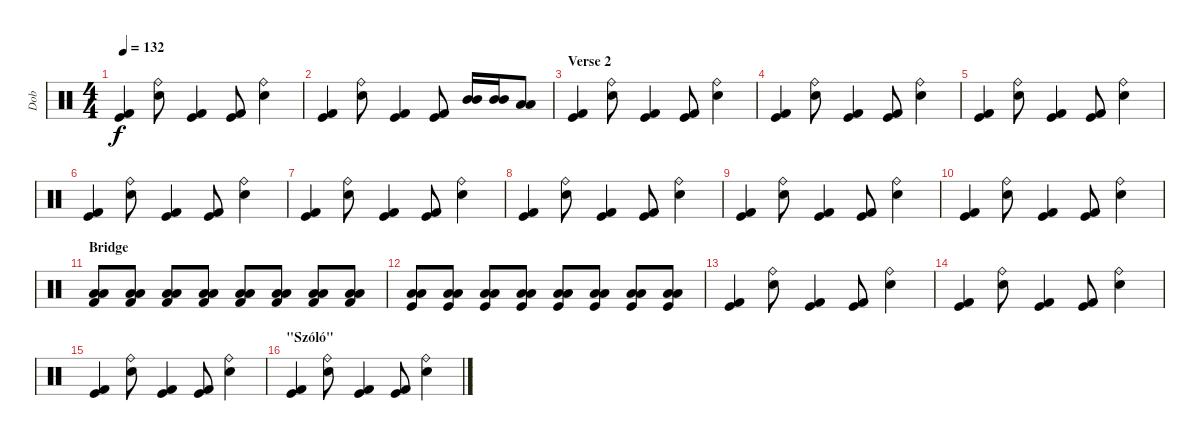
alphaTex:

\track ("Dob" "Dob") {instrument percussion}
\staff {score}
\articulation defaults
\ts (4 4)
\tempo 132
\clef neutral
\ks c
("Kick (hit)" "Kick (hit) 2").4{dy f} ("Snare (hit) 2" "Ride (bell)").8 ("Kick (hit)" "Kick (hit) 2").4 ("Kick (hit)" "Kick (hit) 2").8 ("Snare (hit) 2" "Ride (bell)").4 |
("Kick (hit)" "Kick (hit) 2").4 ("Snare (hit) 2" "Ride (bell)").8 ("Kick (hit)" "Kick (hit) 2").4 ("Kick (hit)" "Kick (hit) 2").8 ("Mid Tom (hit)" "Mid Tom (hit)").16 ("Mid Tom (hit)" "Mid Tom (hit)").16 ("Low Tom (hit)" "Low Tom (hit)").8 |
\section ("" "Verse 2")
("Kick (hit)" "Kick (hit) 2").4 ("Snare (hit) 2" "Ride (bell)").8 ("Kick (hit)" "Kick (hit) 2").4 ("Kick (hit)" "Kick (hit) 2").8 ("Snare (hit) 2" "Ride (bell)").4 |
("Kick (hit)" "Kick (hit) 2").4 ("Snare (hit) 2" "Ride (bell)").8 ("Kick (hit)" "Kick (hit) 2").4 ("Kick (hit)" "Kick (hit) 2").8 ("Snare (hit) 2" "Ride (bell)").4 |
("Kick (hit)" "Kick (hit) 2").4 ("Snare (hit) 2" "Ride (bell)").8 ("Kick (hit)" "Kick (hit) 2").4 ("Kick (hit)" "Kick (hit) 2").8 ("Snare (hit) 2" "Ride (bell)").4 |
("Kick (hit)" "Kick (hit) 2").4 ("Snare (hit) 2" "Ride (bell)").8 ("Kick (hit)" "Kick (hit) 2").4 ("Kick (hit)" "Kick (hit) 2").8 ("Snare (hit) 2" "Ride (bell)").4 |
("Kick (hit)" "Kick (hit) 2").4 ("Snare (hit) 2" "Ride (bell)").8 ("Kick (hit)" "Kick (hit) 2").4 ("Kick (hit)" "Kick (hit) 2").8 ("Snare (hit) 2" "Ride (bell)").4 |
("Kick (hit)" "Kick (hit) 2").4 ("Snare (hit) 2" "Ride (bell)").8 ("Kick (hit)" "Kick (hit) 2").4 ("Kick (hit)" "Kick (hit) 2").8 ("Snare (hit) 2" "Ride (bell)").4 |
("Kick (hit)" "Kick (hit) 2").4 ("Snare (hit) 2" "Ride (bell)").8 ("Kick (hit)" "Kick (hit) 2").4 ("Kick (hit)" "Kick (hit) 2").8 ("Snare (hit) 2" "Ride (bell)").4 |
("Kick (hit)" "Kick (hit) 2").4 ("Snare (hit) 2" "Ride (bell)").8 ("Kick (hit)" "Kick (hit) 2").4 ("Kick (hit)" "Kick (hit) 2").8 ("Snare (hit) 2" "Ride (bell)").4 |
\section ("" "Bridge")
("Kick (hit) 2" "Low Tom (hit)" "Low Tom (hit)").8 ("Kick (hit) 2" "Low Tom (hit)" "Low Tom (hit)").8 ("Kick (hit) 2" "Low Tom (hit)" "Low Tom (hit)").8 ("Kick (hit) 2" "Low Tom (hit)" "Low Tom (hit)").8 ("Kick (hit) 2" "Low Tom (hit)" "Low Tom (hit)").8 ("Kick (hit) 2" "Low Tom (hit)" "Low Tom (hit)").8 ("Kick (hit) 2" "Low Tom (hit)" "Low Tom (hit)").8 ("Kick (hit) 2" "Low Tom (hit)" "Low Tom (hit)").8 |
("Kick (hit)" "Low Tom (hit)" "Low Tom (hit)").8 ("Kick (hit)" "Low Tom (hit)" "Low Tom (hit)").8 ("Kick (hit)" "Low Tom (hit)" "Low Tom (hit)").8 ("Kick (hit)" "Low Tom (hit)" "Low Tom (hit)").8 ("Kick (hit)" "Low Tom (hit)" "Low Tom (hit)").8 ("Kick (hit)" "Low Tom (hit)" "Low Tom (hit)").8 ("Kick (hit)" "Low Tom (hit)" "Low Tom (hit)").8 ("Kick (hit)" "Low Tom (hit)" "Low Tom (hit)").8 |
("Kick (hit)" "Kick (hit) 2").4 ("Snare (hit) 2" "Ride (bell)").8 ("Kick (hit)" "Kick (hit) 2").4 ("Kick (hit)" "Kick (hit) 2").8 ("Snare (hit) 2" "Ride (bell)").4 |
("Kick (hit)" "Kick (hit) 2").4 ("Snare (hit) 2" "Ride (bell)").8 ("Kick (hit)" "Kick (hit) 2").4 ("Kick (hit)" "Kick (hit) 2").8 ("Snare (hit) 2" "Ride (bell)").4 |
("Kick (hit)" "Kick (hit) 2").4 ("Snare (hit) 2" "Ride (bell)").8 ("Kick (hit)" "Kick (hit) 2").4 ("Kick (hit)" "Kick (hit) 2").8 ("Snare (hit) 2" "Ride (bell)").4 |
\section ("" "\"Szóló\"")
("Kick (hit)" "Kick (hit) 2").4 ("Snare (hit) 2" "Ride (bell)").8 ("Kick (hit)" "Kick (hit) 2").4 ("Kick (hit)" "Kick (hit) 2").8 ("Snare (hit) 2" "Ride (bell)").4
